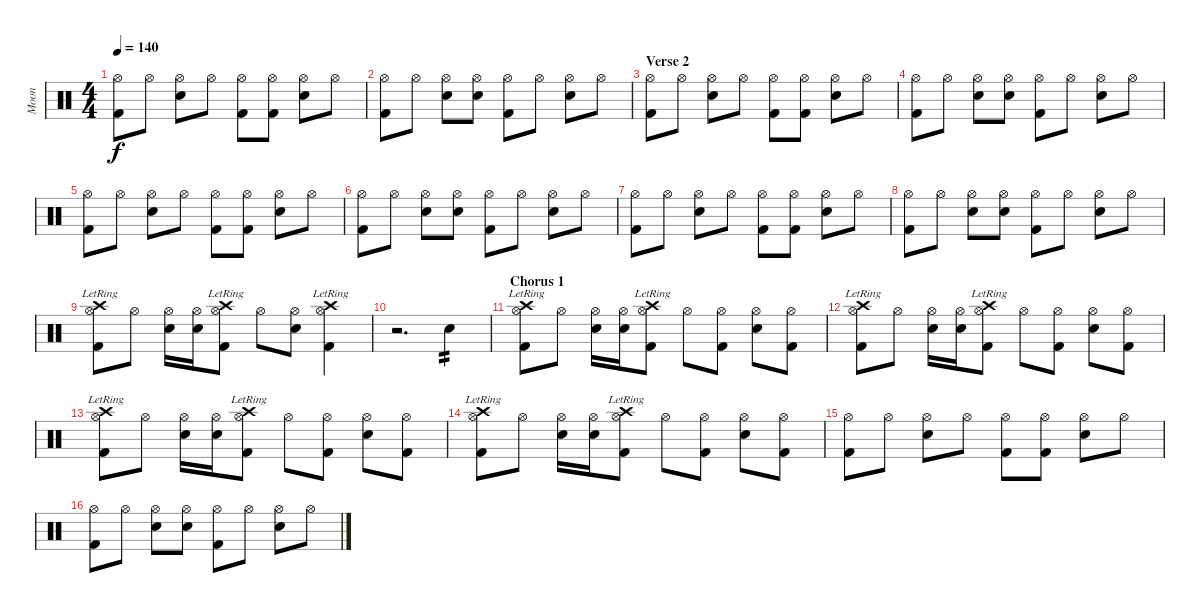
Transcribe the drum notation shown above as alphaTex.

\track ("Moon" "Moon") {instrument percussion}
\staff {score}
\articulation defaults
\ts (4 4)
\tempo 140
\clef neutral
\ks c
("Hi-Hat (open)" "Kick (hit) 2").8{dy f} "Hi-Hat (open)".8 ("Hi-Hat (open)" "Snare (hit) 2").8 "Hi-Hat (open)".8 ("Hi-Hat (open)" "Kick (hit) 2").8 ("Hi-Hat (open)" "Kick (hit) 2").8 ("Hi-Hat (open)" "Snare (hit) 2").8 "Hi-Hat (open)".8 |
("Hi-Hat (open)" "Kick (hit) 2").8 "Hi-Hat (open)".8 ("Hi-Hat (open)" "Snare (hit) 2").8 ("Hi-Hat (open)" "Snare (hit) 2").8 ("Hi-Hat (open)" "Kick (hit) 2").8 "Hi-Hat (open)".8 ("Hi-Hat (open)" "Snare (hit) 2").8 "Hi-Hat (open)".8 |
\section ("" "Verse 2")
("Hi-Hat (open)" "Kick (hit) 2").8 "Hi-Hat (open)".8 ("Hi-Hat (open)" "Snare (hit) 2").8 "Hi-Hat (open)".8 ("Hi-Hat (open)" "Kick (hit) 2").8 ("Hi-Hat (open)" "Kick (hit) 2").8 ("Hi-Hat (open)" "Snare (hit) 2").8 "Hi-Hat (open)".8 |
("Hi-Hat (open)" "Kick (hit) 2").8 "Hi-Hat (open)".8 ("Hi-Hat (open)" "Snare (hit) 2").8 ("Hi-Hat (open)" "Snare (hit) 2").8 ("Hi-Hat (open)" "Kick (hit) 2").8 "Hi-Hat (open)".8 ("Hi-Hat (open)" "Snare (hit) 2").8 "Hi-Hat (open)".8 |
("Hi-Hat (open)" "Kick (hit) 2").8 "Hi-Hat (open)".8 ("Hi-Hat (open)" "Snare (hit) 2").8 "Hi-Hat (open)".8 ("Hi-Hat (open)" "Kick (hit) 2").8 ("Hi-Hat (open)" "Kick (hit) 2").8 ("Hi-Hat (open)" "Snare (hit) 2").8 "Hi-Hat (open)".8 |
("Hi-Hat (open)" "Kick (hit) 2").8 "Hi-Hat (open)".8 ("Hi-Hat (open)" "Snare (hit) 2").8 ("Hi-Hat (open)" "Snare (hit) 2").8 ("Hi-Hat (open)" "Kick (hit) 2").8 "Hi-Hat (open)".8 ("Hi-Hat (open)" "Snare (hit) 2").8 "Hi-Hat (open)".8 |
("Hi-Hat (open)" "Kick (hit) 2").8 "Hi-Hat (open)".8 ("Hi-Hat (open)" "Snare (hit) 2").8 "Hi-Hat (open)".8 ("Hi-Hat (open)" "Kick (hit) 2").8 ("Hi-Hat (open)" "Kick (hit) 2").8 ("Hi-Hat (open)" "Snare (hit) 2").8 "Hi-Hat (open)".8 |
("Hi-Hat (open)" "Kick (hit) 2").8 "Hi-Hat (open)".8 ("Hi-Hat (open)" "Snare (hit) 2").8 ("Hi-Hat (open)" "Snare (hit) 2").8 ("Hi-Hat (open)" "Kick (hit) 2").8 "Hi-Hat (open)".8 ("Hi-Hat (open)" "Snare (hit) 2").8 "Hi-Hat (open)".8 |
("Hi-Hat (open)" "Kick (hit) 2" "Crash high (hit)"{lr}).8 "Hi-Hat (open)".8 ("Hi-Hat (open)" "Snare (hit) 2").16 ("Hi-Hat (open)" "Snare (hit) 2").16 ("Hi-Hat (open)" "Kick (hit) 2" "Crash high (hit)"{lr}).8 "Hi-Hat (open)".8 ("Hi-Hat (open)" "Snare (hit) 2").8 ("Hi-Hat (open)" "Kick (hit) 2" "Crash high (hit)"{lr}).4 |
r.2{d} "Snare (hit) 2".4{tp 2} |
\section ("" "Chorus 1")
("Hi-Hat (open)" "Kick (hit) 2" "Crash high (hit)"{lr}).8 "Hi-Hat (open)".8 ("Hi-Hat (open)" "Snare (hit) 2").16 ("Hi-Hat (open)" "Snare (hit) 2").16 ("Hi-Hat (open)" "Kick (hit) 2" "Crash high (hit)"{lr}).8 "Hi-Hat (open)".8 ("Hi-Hat (open)" "Kick (hit) 2").8 ("Hi-Hat (open)" "Snare (hit) 2").8 ("Hi-Hat (open)" "Kick (hit) 2").8 |
("Hi-Hat (open)" "Kick (hit) 2" "Crash high (hit)"{lr}).8 "Hi-Hat (open)".8 ("Hi-Hat (open)" "Snare (hit) 2").16 ("Hi-Hat (open)" "Snare (hit) 2").16 ("Hi-Hat (open)" "Kick (hit) 2" "Crash high (hit)"{lr}).8 "Hi-Hat (open)".8 ("Hi-Hat (open)" "Kick (hit) 2").8 ("Hi-Hat (open)" "Snare (hit) 2").8 ("Hi-Hat (open)" "Kick (hit) 2").8 |
("Hi-Hat (open)" "Kick (hit) 2" "Crash high (hit)"{lr}).8 "Hi-Hat (open)".8 ("Hi-Hat (open)" "Snare (hit) 2").16 ("Hi-Hat (open)" "Snare (hit) 2").16 ("Hi-Hat (open)" "Kick (hit) 2" "Crash high (hit)"{lr}).8 "Hi-Hat (open)".8 ("Hi-Hat (open)" "Kick (hit) 2").8 ("Hi-Hat (open)" "Snare (hit) 2").8 ("Hi-Hat (open)" "Kick (hit) 2").8 |
("Hi-Hat (open)" "Kick (hit) 2" "Crash high (hit)"{lr}).8 "Hi-Hat (open)".8 ("Hi-Hat (open)" "Snare (hit) 2").16 ("Hi-Hat (open)" "Snare (hit) 2").16 ("Hi-Hat (open)" "Kick (hit) 2" "Crash high (hit)"{lr}).8 "Hi-Hat (open)".8 ("Hi-Hat (open)" "Kick (hit) 2").8 ("Hi-Hat (open)" "Snare (hit) 2").8 ("Hi-Hat (open)" "Kick (hit) 2").8 |
("Hi-Hat (open)" "Kick (hit) 2").8 "Hi-Hat (open)".8 ("Hi-Hat (open)" "Snare (hit) 2").8 "Hi-Hat (open)".8 ("Hi-Hat (open)" "Kick (hit) 2").8 ("Hi-Hat (open)" "Kick (hit) 2").8 ("Hi-Hat (open)" "Snare (hit) 2").8 "Hi-Hat (open)".8 |
("Hi-Hat (open)" "Kick (hit) 2").8 "Hi-Hat (open)".8 ("Hi-Hat (open)" "Snare (hit) 2").8 ("Hi-Hat (open)" "Snare (hit) 2").8 ("Hi-Hat (open)" "Kick (hit) 2").8 "Hi-Hat (open)".8 ("Hi-Hat (open)" "Snare (hit) 2").8 "Hi-Hat (open)".8
